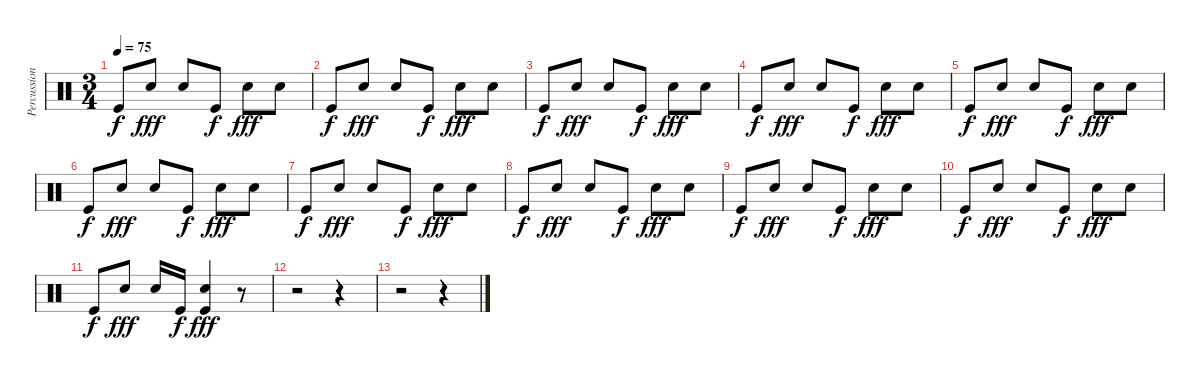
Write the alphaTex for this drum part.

\track ("Percussion" "Percussion") {instrument percussion}
\staff {score}
\articulation defaults
\ts (3 4)
\tempo 75
\clef neutral
\ks c "Kick (hit)".8{dy f} "Snare (hit) 2".8{dy fff} "Snare (hit) 2".8 "Kick (hit)".8{dy f} "Snare (hit) 2".8{dy fff} "Snare (hit) 2".8
|
"Kick (hit)".8{dy f} "Snare (hit) 2".8{dy fff} "Snare (hit) 2".8 "Kick (hit)".8{dy f} "Snare (hit) 2".8{dy fff} "Snare (hit) 2".8 |
"Kick (hit)".8{dy f} "Snare (hit) 2".8{dy fff} "Snare (hit) 2".8 "Kick (hit)".8{dy f} "Snare (hit) 2".8{dy fff} "Snare (hit) 2".8 |
"Kick (hit)".8{dy f} "Snare (hit) 2".8{dy fff} "Snare (hit) 2".8 "Kick (hit)".8{dy f} "Snare (hit) 2".8{dy fff} "Snare (hit) 2".8 |
"Kick (hit)".8{dy f} "Snare (hit) 2".8{dy fff} "Snare (hit) 2".8 "Kick (hit)".8{dy f} "Snare (hit) 2".8{dy fff} "Snare (hit) 2".8 |
"Kick (hit)".8{dy f} "Snare (hit) 2".8{dy fff} "Snare (hit) 2".8 "Kick (hit)".8{dy f} "Snare (hit) 2".8{dy fff} "Snare (hit) 2".8 |
"Kick (hit)".8{dy f} "Snare (hit) 2".8{dy fff} "Snare (hit) 2".8 "Kick (hit)".8{dy f} "Snare (hit) 2".8{dy fff} "Snare (hit) 2".8 |
"Kick (hit)".8{dy f} "Snare (hit) 2".8{dy fff} "Snare (hit) 2".8 "Kick (hit)".8{dy f} "Snare (hit) 2".8{dy fff} "Snare (hit) 2".8 |
"Kick (hit)".8{dy f} "Snare (hit) 2".8{dy fff} "Snare (hit) 2".8 "Kick (hit)".8{dy f} "Snare (hit) 2".8{dy fff} "Snare (hit) 2".8 |
"Kick (hit)".8{dy f} "Snare (hit) 2".8{dy fff} "Snare (hit) 2".8 "Kick (hit)".8{dy f} "Snare (hit) 2".8{dy fff} "Snare (hit) 2".8 |
"Kick (hit)".8{dy f} "Snare (hit) 2".8{dy fff} "Snare (hit) 2".16 "Kick (hit)".16{dy f} ("Snare (hit) 2" "Kick (hit)").4{dy fff} r.8 |
r.2 r.4 |
r.2 r.4
